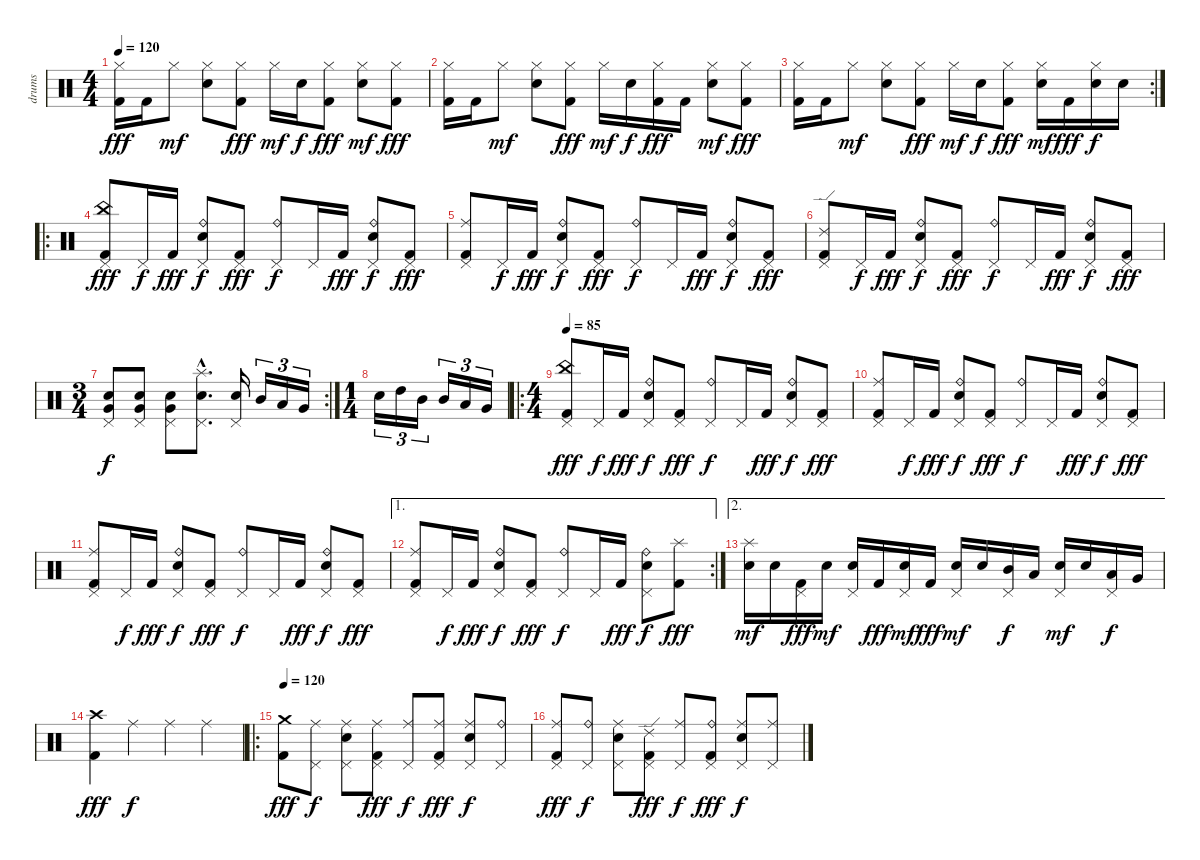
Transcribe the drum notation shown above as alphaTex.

\track ("drums" "drums") {instrument percussion}
\staff {score}
\articulation defaults
\ts (4 4)
\tempo 120
\clef neutral
\ks c
("Hi-Hat (closed)" "Kick (hit) 2").16{dy fff} "Kick (hit) 2".16 "Hi-Hat (closed)".8{dy mf} ("Hi-Hat (closed)" "Electric Snare (hit)").8 ("Hi-Hat (closed)" "Kick (hit) 2").8{dy fff} "Hi-Hat (closed)".16{dy mf} "Electric Snare (hit)".16{dy f} ("Hi-Hat (closed)" "Kick (hit) 2").8{dy fff} ("Hi-Hat (closed)" "Electric Snare (hit)").8{dy mf} ("Hi-Hat (closed)" "Kick (hit) 2").8{dy fff} |
("Hi-Hat (closed)" "Kick (hit) 2").16 "Kick (hit) 2".16 "Hi-Hat (closed)".8{dy mf} ("Hi-Hat (closed)" "Electric Snare (hit)").8 ("Hi-Hat (closed)" "Kick (hit) 2").8{dy fff} "Hi-Hat (closed)".16{dy mf} "Electric Snare (hit)".16{dy f} ("Hi-Hat (closed)" "Kick (hit) 2").16{dy fff} "Kick (hit) 2".16 ("Hi-Hat (closed)" "Electric Snare (hit)").8{dy mf} ("Hi-Hat (closed)" "Kick (hit) 2").8{dy fff} |
\rc 2
("Hi-Hat (closed)" "Kick (hit) 2").16 "Kick (hit) 2".16 "Hi-Hat (closed)".8{dy mf} ("Hi-Hat (closed)" "Electric Snare (hit)").8 ("Hi-Hat (closed)" "Kick (hit) 2").8{dy fff} "Hi-Hat (closed)".16{dy mf} "Electric Snare (hit)".16{dy f} ("Hi-Hat (closed)" "Kick (hit) 2").8{dy fff} ("Hi-Hat (closed)" "Electric Snare (hit)").16{dy mf} "Kick (hit) 2".16{dy fff} ("Hi-Hat (closed)" "Electric Snare (hit)").16{dy f} "Electric Snare (hit)".16 |
\ro
\section ("" "")
("China (hit)" "Pedal Hi-Hat (hit)" "Kick (hit) 2").8{dy fff} "Pedal Hi-Hat (hit)".16{dy f} "Kick (hit) 2".16{dy fff} ("Ride (bell)" "Pedal Hi-Hat (hit)" "Electric Snare (hit)").8{dy f} ("Pedal Hi-Hat (hit)" "Kick (hit) 2").8{dy fff} ("Ride (bell)" "Pedal Hi-Hat (hit)").8{dy f} "Pedal Hi-Hat (hit)".16 "Kick (hit) 2".16{dy fff} ("Ride (bell)" "Pedal Hi-Hat (hit)" "Electric Snare (hit)").8{dy f} ("Pedal Hi-Hat (hit)" "Kick (hit) 2").8{dy fff} |
("Ride (middle)" "Pedal Hi-Hat (hit)" "Kick (hit) 2").8 "Pedal Hi-Hat (hit)".16{dy f} "Kick (hit) 2".16{dy fff} ("Ride (bell)" "Pedal Hi-Hat (hit)" "Electric Snare (hit)").8{dy f} ("Pedal Hi-Hat (hit)" "Kick (hit) 2").8{dy fff} ("Ride (bell)" "Pedal Hi-Hat (hit)").8{dy f} "Pedal Hi-Hat (hit)".16 "Kick (hit) 2".16{dy fff} ("Ride (bell)" "Pedal Hi-Hat (hit)" "Electric Snare (hit)").8{dy f} ("Pedal Hi-Hat (hit)" "Kick (hit) 2").8{dy fff} |
("Ride (edge) 2" "Pedal Hi-Hat (hit)" "Kick (hit) 2").8 "Pedal Hi-Hat (hit)".16{dy f} "Kick (hit) 2".16{dy fff} ("Ride (bell)" "Pedal Hi-Hat (hit)" "Electric Snare (hit)").8{dy f} ("Pedal Hi-Hat (hit)" "Kick (hit) 2").8{dy fff} ("Ride (bell)" "Pedal Hi-Hat (hit)").8{dy f} "Pedal Hi-Hat (hit)".16 "Kick (hit) 2".16{dy fff} ("Ride (bell)" "Pedal Hi-Hat (hit)" "Electric Snare (hit)").8{dy f} ("Pedal Hi-Hat (hit)" "Kick (hit) 2").8{dy fff} |
\rc 2
\ts (3 4)
("Pedal Hi-Hat (hit)" "Electric Snare (hit)" "Very Low Tom (hit)").8{dy f} ("Pedal Hi-Hat (hit)" "Electric Snare (hit)" "Very Low Tom (hit)").8 ("Pedal Hi-Hat (hit)" "Electric Snare (hit)" "Very Low Tom (hit)").8 ("Splash (hit)"{hac} "Pedal Hi-Hat (hit)"{hac} "Electric Snare (hit)"{hac}).8{d} ("Pedal Hi-Hat (hit)" "Electric Snare (hit)").16 "Mid Tom (hit)".16{tu (3 2)} "Low Tom (hit)".16{tu (3 2)} "Very Low Tom (hit)".16{tu (3 2)} |
\ts (1 4)
"Electric Snare (hit)".16{tu (3 2)} "High Tom (hit)".16{tu (3 2)} "Mid Tom (hit)".16{tu (3 2)} "Mid Tom (hit)".16{tu (3 2)} "Low Tom (hit)".16{tu (3 2)} "Very Low Tom (hit)".16{tu (3 2)} |
\ro
\ts (4 4)
\section ("" "")
\tempo 85
("China (hit)" "Pedal Hi-Hat (hit)" "Kick (hit) 2").8{dy fff} "Pedal Hi-Hat (hit)".16{dy f} "Kick (hit) 2".16{dy fff} ("Ride (bell)" "Pedal Hi-Hat (hit)" "Electric Snare (hit)").8{dy f} ("Pedal Hi-Hat (hit)" "Kick (hit) 2").8{dy fff} ("Ride (bell)" "Pedal Hi-Hat (hit)").8{dy f} "Pedal Hi-Hat (hit)".16 "Kick (hit) 2".16{dy fff} ("Ride (bell)" "Pedal Hi-Hat (hit)" "Electric Snare (hit)").8{dy f} ("Pedal Hi-Hat (hit)" "Kick (hit) 2").8{dy fff} |
("Ride (middle)" "Pedal Hi-Hat (hit)" "Kick (hit) 2").8 "Pedal Hi-Hat (hit)".16{dy f} "Kick (hit) 2".16{dy fff} ("Ride (bell)" "Pedal Hi-Hat (hit)" "Electric Snare (hit)").8{dy f} ("Pedal Hi-Hat (hit)" "Kick (hit) 2").8{dy fff} ("Ride (bell)" "Pedal Hi-Hat (hit)").8{dy f} "Pedal Hi-Hat (hit)".16 "Kick (hit) 2".16{dy fff} ("Ride (bell)" "Pedal Hi-Hat (hit)" "Electric Snare (hit)").8{dy f} ("Pedal Hi-Hat (hit)" "Kick (hit) 2").8{dy fff} |
("Ride (middle)" "Pedal Hi-Hat (hit)" "Kick (hit) 2").8 "Pedal Hi-Hat (hit)".16{dy f} "Kick (hit) 2".16{dy fff} ("Ride (bell)" "Pedal Hi-Hat (hit)" "Electric Snare (hit)").8{dy f} ("Pedal Hi-Hat (hit)" "Kick (hit) 2").8{dy fff} ("Ride (bell)" "Pedal Hi-Hat (hit)").8{dy f} "Pedal Hi-Hat (hit)".16 "Kick (hit) 2".16{dy fff} ("Ride (bell)" "Pedal Hi-Hat (hit)" "Electric Snare (hit)").8{dy f} ("Pedal Hi-Hat (hit)" "Kick (hit) 2").8{dy fff} |
\ae 1
\rc 2
("Ride (middle)" "Pedal Hi-Hat (hit)" "Kick (hit) 2").8 "Pedal Hi-Hat (hit)".16{dy f} "Kick (hit) 2".16{dy fff} ("Ride (bell)" "Pedal Hi-Hat (hit)" "Electric Snare (hit)").8{dy f} ("Pedal Hi-Hat (hit)" "Kick (hit) 2").8{dy fff} ("Ride (bell)" "Pedal Hi-Hat (hit)").8{dy f} "Pedal Hi-Hat (hit)".16 "Kick (hit) 2".16{dy fff} ("Ride (bell)" "Pedal Hi-Hat (hit)" "Electric Snare (hit)").8{dy f} ("Splash (hit)" "Kick (hit) 2").8{dy fff} |
\ae 2
("Splash (hit)" "Electric Snare (hit)").16{dy mf} "Electric Snare (hit)".16 ("Pedal Hi-Hat (hit)" "Kick (hit) 2").16{dy fff} "Electric Snare (hit)".16{dy mf} ("Pedal Hi-Hat (hit)" "Electric Snare (hit)").16 "Kick (hit) 2".16{dy fff} ("Pedal Hi-Hat (hit)" "Electric Snare (hit)").16{dy mf} "Kick (hit) 2".16{dy fff} ("Pedal Hi-Hat (hit)" "Electric Snare (hit)").16{dy mf} "Electric Snare (hit)".16 ("Pedal Hi-Hat (hit)" "Mid Tom (hit)").16{dy f} "Low Tom (hit)".16 ("Pedal Hi-Hat (hit)" "Electric Snare (hit)").16{dy mf} "Electric Snare (hit)".16 ("Pedal Hi-Hat (hit)" "Low Tom (hit)").16{dy f} "Very Low Tom (hit)".16 |
("Crash high (hit)" "Kick (hit) 2").4{dy fff} "Ride (middle)".4{dy f} "Ride (middle)".4 "Ride (middle)".4 |
\ro
\section ("" "")
\tempo 120
("Crash medium (hit)" "Kick (hit) 2").8{dy fff} ("Ride (middle)" "Pedal Hi-Hat (hit)").8{dy f} ("Ride (middle)" "Pedal Hi-Hat (hit)" "Electric Snare (hit)").8 ("Ride (middle)" "Pedal Hi-Hat (hit)" "Kick (hit) 2").8{dy fff} ("Ride (middle)" "Pedal Hi-Hat (hit)").8{dy f} ("Ride (middle)" "Pedal Hi-Hat (hit)" "Kick (hit) 2").8{dy fff} ("Ride (middle)" "Pedal Hi-Hat (hit)" "Electric Snare (hit)").8{dy f} ("Ride (bell)" "Pedal Hi-Hat (hit)").8 |
("Ride (middle)" "Pedal Hi-Hat (hit)" "Kick (hit) 2").8{dy fff} ("Ride (bell)" "Pedal Hi-Hat (hit)").8{dy f} ("Ride (middle)" "Pedal Hi-Hat (hit)" "Electric Snare (hit)").8 ("Ride (edge) 2" "Pedal Hi-Hat (hit)" "Kick (hit) 2").8{dy fff} ("Ride (middle)" "Pedal Hi-Hat (hit)").8{dy f} ("Ride (bell)" "Pedal Hi-Hat (hit)" "Kick (hit) 2").8{dy fff} ("Ride (middle)" "Pedal Hi-Hat (hit)" "Electric Snare (hit)").8{dy f} ("Ride (middle)" "Pedal Hi-Hat (hit)").8
